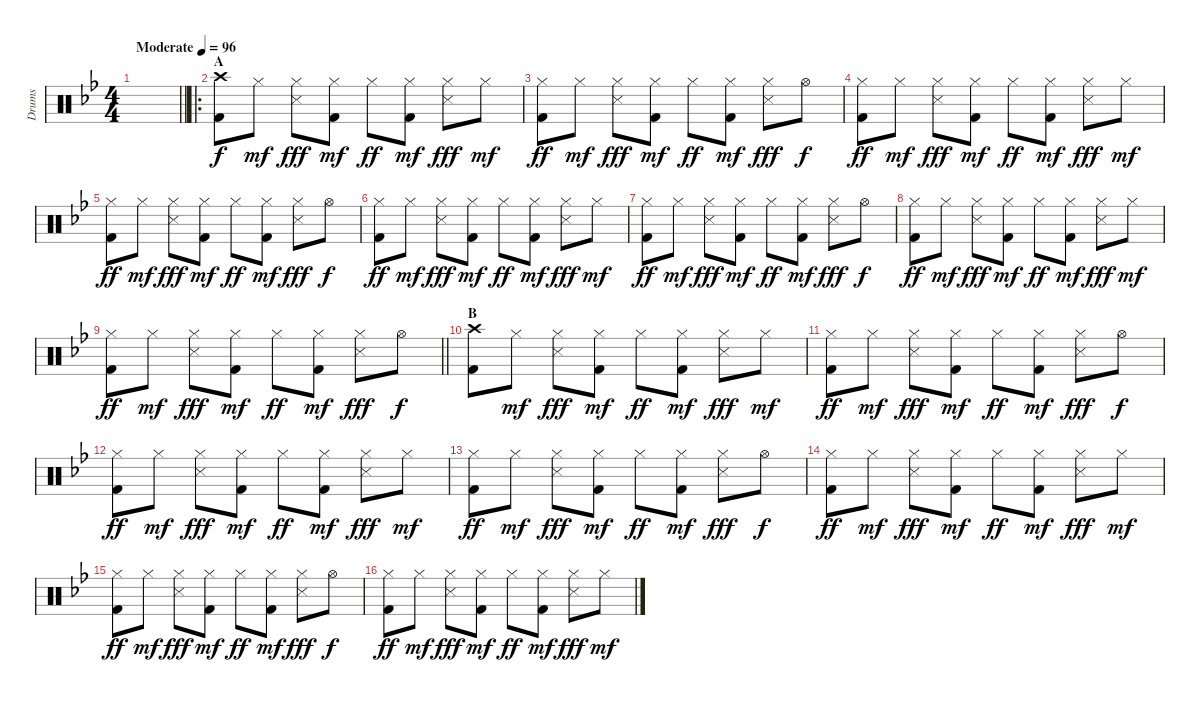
\track ("Drums" "Drums") {instrument percussion}
\staff {score}
\articulation defaults
\ts (4 4)
\tempo (96 "Moderate")
\clef neutral
\barLineRight lightlight
\ks bb
|
\ro
\section ("" "A")
("Crash high (hit)" "Kick (hit) 2").8 "Hi-Hat (closed)".8{dy mf} ("Hi-Hat (closed)" "Snare (side stick) 3").8{dy fff} ("Hi-Hat (closed)" "Kick (hit) 2").8{dy mf} "Hi-Hat (closed)".8{dy ff} ("Hi-Hat (closed)" "Kick (hit) 2").8{dy mf} ("Hi-Hat (closed)" "Snare (side stick) 3").8{dy fff} "Hi-Hat (closed)".8{dy mf} |
("Hi-Hat (closed)" "Kick (hit) 2").8{dy ff} "Hi-Hat (closed)".8{dy mf} ("Hi-Hat (closed)" "Snare (side stick) 3").8{dy fff} ("Hi-Hat (closed)" "Kick (hit) 2").8{dy mf} "Hi-Hat (closed)".8{dy ff} ("Hi-Hat (closed)" "Kick (hit) 2").8{dy mf} ("Hi-Hat (closed)" "Snare (side stick) 3").8{dy fff} "Hi-Hat (open)".8{dy f} |
("Hi-Hat (closed)" "Kick (hit) 2").8{dy ff} "Hi-Hat (closed)".8{dy mf} ("Hi-Hat (closed)" "Snare (side stick) 3").8{dy fff} ("Hi-Hat (closed)" "Kick (hit) 2").8{dy mf} "Hi-Hat (closed)".8{dy ff} ("Hi-Hat (closed)" "Kick (hit) 2").8{dy mf} ("Hi-Hat (closed)" "Snare (side stick) 3").8{dy fff} "Hi-Hat (closed)".8{dy mf} |
("Hi-Hat (closed)" "Kick (hit) 2").8{dy ff} "Hi-Hat (closed)".8{dy mf} ("Hi-Hat (closed)" "Snare (side stick) 3").8{dy fff} ("Hi-Hat (closed)" "Kick (hit) 2").8{dy mf} "Hi-Hat (closed)".8{dy ff} ("Hi-Hat (closed)" "Kick (hit) 2").8{dy mf} ("Hi-Hat (closed)" "Snare (side stick) 3").8{dy fff} "Hi-Hat (open)".8{dy f} |
("Hi-Hat (closed)" "Kick (hit) 2").8{dy ff} "Hi-Hat (closed)".8{dy mf} ("Hi-Hat (closed)" "Snare (side stick) 3").8{dy fff} ("Hi-Hat (closed)" "Kick (hit) 2").8{dy mf} "Hi-Hat (closed)".8{dy ff} ("Hi-Hat (closed)" "Kick (hit) 2").8{dy mf} ("Hi-Hat (closed)" "Snare (side stick) 3").8{dy fff} "Hi-Hat (closed)".8{dy mf} |
("Hi-Hat (closed)" "Kick (hit) 2").8{dy ff} "Hi-Hat (closed)".8{dy mf} ("Hi-Hat (closed)" "Snare (side stick) 3").8{dy fff} ("Hi-Hat (closed)" "Kick (hit) 2").8{dy mf} "Hi-Hat (closed)".8{dy ff} ("Hi-Hat (closed)" "Kick (hit) 2").8{dy mf} ("Hi-Hat (closed)" "Snare (side stick) 3").8{dy fff} "Hi-Hat (open)".8{dy f} |
("Hi-Hat (closed)" "Kick (hit) 2").8{dy ff} "Hi-Hat (closed)".8{dy mf} ("Hi-Hat (closed)" "Snare (side stick) 3").8{dy fff} ("Hi-Hat (closed)" "Kick (hit) 2").8{dy mf} "Hi-Hat (closed)".8{dy ff} ("Hi-Hat (closed)" "Kick (hit) 2").8{dy mf} ("Hi-Hat (closed)" "Snare (side stick) 3").8{dy fff} "Hi-Hat (closed)".8{dy mf} |
\barLineRight lightlight
("Hi-Hat (closed)" "Kick (hit) 2").8{dy ff} "Hi-Hat (closed)".8{dy mf} ("Hi-Hat (closed)" "Snare (side stick) 3").8{dy fff} ("Hi-Hat (closed)" "Kick (hit) 2").8{dy mf} "Hi-Hat (closed)".8{dy ff} ("Hi-Hat (closed)" "Kick (hit) 2").8{dy mf} ("Hi-Hat (closed)" "Snare (side stick) 3").8{dy fff} "Hi-Hat (open)".8{dy f} |
\section ("" "B")
("Crash high (hit)" "Kick (hit) 2").8 "Hi-Hat (closed)".8{dy mf} ("Hi-Hat (closed)" "Snare (side stick) 3").8{dy fff} ("Hi-Hat (closed)" "Kick (hit) 2").8{dy mf} "Hi-Hat (closed)".8{dy ff} ("Hi-Hat (closed)" "Kick (hit) 2").8{dy mf} ("Hi-Hat (closed)" "Snare (side stick) 3").8{dy fff} "Hi-Hat (closed)".8{dy mf} |
("Hi-Hat (closed)" "Kick (hit) 2").8{dy ff} "Hi-Hat (closed)".8{dy mf} ("Hi-Hat (closed)" "Snare (side stick) 3").8{dy fff} ("Hi-Hat (closed)" "Kick (hit) 2").8{dy mf} "Hi-Hat (closed)".8{dy ff} ("Hi-Hat (closed)" "Kick (hit) 2").8{dy mf} ("Hi-Hat (closed)" "Snare (side stick) 3").8{dy fff} "Hi-Hat (open)".8{dy f} |
("Hi-Hat (closed)" "Kick (hit) 2").8{dy ff} "Hi-Hat (closed)".8{dy mf} ("Hi-Hat (closed)" "Snare (side stick) 3").8{dy fff} ("Hi-Hat (closed)" "Kick (hit) 2").8{dy mf} "Hi-Hat (closed)".8{dy ff} ("Hi-Hat (closed)" "Kick (hit) 2").8{dy mf} ("Hi-Hat (closed)" "Snare (side stick) 3").8{dy fff} "Hi-Hat (closed)".8{dy mf} |
("Hi-Hat (closed)" "Kick (hit) 2").8{dy ff} "Hi-Hat (closed)".8{dy mf} ("Hi-Hat (closed)" "Snare (side stick) 3").8{dy fff} ("Hi-Hat (closed)" "Kick (hit) 2").8{dy mf} "Hi-Hat (closed)".8{dy ff} ("Hi-Hat (closed)" "Kick (hit) 2").8{dy mf} ("Hi-Hat (closed)" "Snare (side stick) 3").8{dy fff} "Hi-Hat (open)".8{dy f} |
("Hi-Hat (closed)" "Kick (hit) 2").8{dy ff} "Hi-Hat (closed)".8{dy mf} ("Hi-Hat (closed)" "Snare (side stick) 3").8{dy fff} ("Hi-Hat (closed)" "Kick (hit) 2").8{dy mf} "Hi-Hat (closed)".8{dy ff} ("Hi-Hat (closed)" "Kick (hit) 2").8{dy mf} ("Hi-Hat (closed)" "Snare (side stick) 3").8{dy fff} "Hi-Hat (closed)".8{dy mf} |
("Hi-Hat (closed)" "Kick (hit) 2").8{dy ff} "Hi-Hat (closed)".8{dy mf} ("Hi-Hat (closed)" "Snare (side stick) 3").8{dy fff} ("Hi-Hat (closed)" "Kick (hit) 2").8{dy mf} "Hi-Hat (closed)".8{dy ff} ("Hi-Hat (closed)" "Kick (hit) 2").8{dy mf} ("Hi-Hat (closed)" "Snare (side stick) 3").8{dy fff} "Hi-Hat (open)".8{dy f} |
("Hi-Hat (closed)" "Kick (hit) 2").8{dy ff} "Hi-Hat (closed)".8{dy mf} ("Hi-Hat (closed)" "Snare (side stick) 3").8{dy fff} ("Hi-Hat (closed)" "Kick (hit) 2").8{dy mf} "Hi-Hat (closed)".8{dy ff} ("Hi-Hat (closed)" "Kick (hit) 2").8{dy mf} ("Hi-Hat (closed)" "Snare (side stick) 3").8{dy fff} "Hi-Hat (closed)".8{dy mf}
